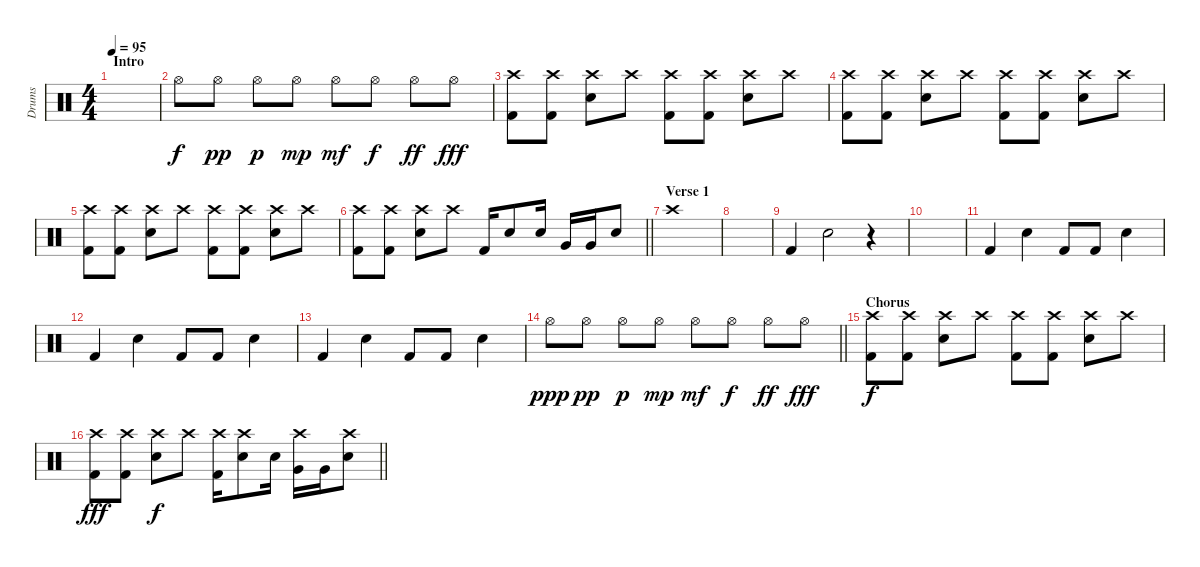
\track ("Drums" "Drums") {instrument percussion}
\staff {score}
\articulation defaults
\ts (4 4)
\section ("" "Intro")
\tempo 95
\clef neutral
\ks c
|
"Hi-Hat (open)".8 "Hi-Hat (open)".8{dy pp} "Hi-Hat (open)".8{dy p} "Hi-Hat (open)".8{dy mp} "Hi-Hat (open)".8{dy mf} "Hi-Hat (open)".8{dy f} "Hi-Hat (open)".8{dy ff} "Hi-Hat (open)".8{dy fff} |
("Crash high (hit)" "Kick (hit) 2").8 ("Crash high (hit)" "Kick (hit) 2").8 ("Crash high (hit)" "Snare (hit) 2").8 "Crash high (hit)".8 ("Crash high (hit)" "Kick (hit) 2").8 ("Crash high (hit)" "Kick (hit) 2").8 ("Crash high (hit)" "Snare (hit) 2").8 "Crash high (hit)".8 |
("Crash high (hit)" "Kick (hit) 2").8 ("Crash high (hit)" "Kick (hit) 2").8 ("Crash high (hit)" "Snare (hit) 2").8 "Crash high (hit)".8 ("Crash high (hit)" "Kick (hit) 2").8 ("Crash high (hit)" "Kick (hit) 2").8 ("Crash high (hit)" "Snare (hit) 2").8 "Crash high (hit)".8 |
("Crash high (hit)" "Kick (hit) 2").8 ("Crash high (hit)" "Kick (hit) 2").8 ("Crash high (hit)" "Snare (hit) 2").8 "Crash high (hit)".8 ("Crash high (hit)" "Kick (hit) 2").8 ("Crash high (hit)" "Kick (hit) 2").8 ("Crash high (hit)" "Snare (hit) 2").8 "Crash high (hit)".8 |
\barLineRight lightlight
("Crash high (hit)" "Kick (hit) 2").8 ("Crash high (hit)" "Kick (hit) 2").8 ("Crash high (hit)" "Snare (hit) 2").8 "Crash high (hit)".8 "Kick (hit) 2".16 "Snare (hit) 2".8 "Snare (hit) 2".16 "Very Low Tom (hit)".16 "Very Low Tom (hit)".16 "Snare (hit) 2".8 |
\section ("" "Verse 1")
"Crash high (hit)".1 |
|
"Kick (hit) 2".4 "Snare (hit) 2".2 r.4 |
|
"Kick (hit) 2".4 "Snare (hit) 2".4 "Kick (hit) 2".8 "Kick (hit) 2".8 "Snare (hit) 2".4 |
"Kick (hit) 2".4 "Snare (hit) 2".4 "Kick (hit) 2".8 "Kick (hit) 2".8 "Snare (hit) 2".4 |
"Kick (hit) 2".4 "Snare (hit) 2".4 "Kick (hit) 2".8 "Kick (hit) 2".8 "Snare (hit) 2".4 |
\barLineRight lightlight "Hi-Hat (open)".8{dy ppp} "Hi-Hat (open)".8{dy pp} "Hi-Hat (open)".8{dy p} "Hi-Hat (open)".8{dy mp} "Hi-Hat (open)".8{dy mf} "Hi-Hat (open)".8{dy f} "Hi-Hat (open)".8{dy ff} "Hi-Hat (open)".8{dy fff}
|
\section ("" "Chorus")
("Crash high (hit)" "Kick (hit) 2").8{dy f} ("Crash high (hit)" "Kick (hit) 2").8 ("Crash high (hit)" "Snare (hit) 2").8 "Crash high (hit)".8 ("Crash high (hit)" "Kick (hit) 2").8 ("Crash high (hit)" "Kick (hit) 2").8 ("Crash high (hit)" "Snare (hit) 2").8 "Crash high (hit)".8 |
\barLineRight lightlight
("Crash high (hit)" "Kick (hit) 2").8{dy fff} ("Crash high (hit)" "Kick (hit) 2").8 ("Crash high (hit)" "Snare (hit) 2").8{dy f} "Crash high (hit)".8 ("Kick (hit) 2" "Crash high (hit)").16 ("Snare (hit) 2" "Crash high (hit)").8 "Snare (hit) 2".16 ("Very Low Tom (hit)" "Crash high (hit)").16 "Very Low Tom (hit)".16 ("Snare (hit) 2" "Crash high (hit)").8
